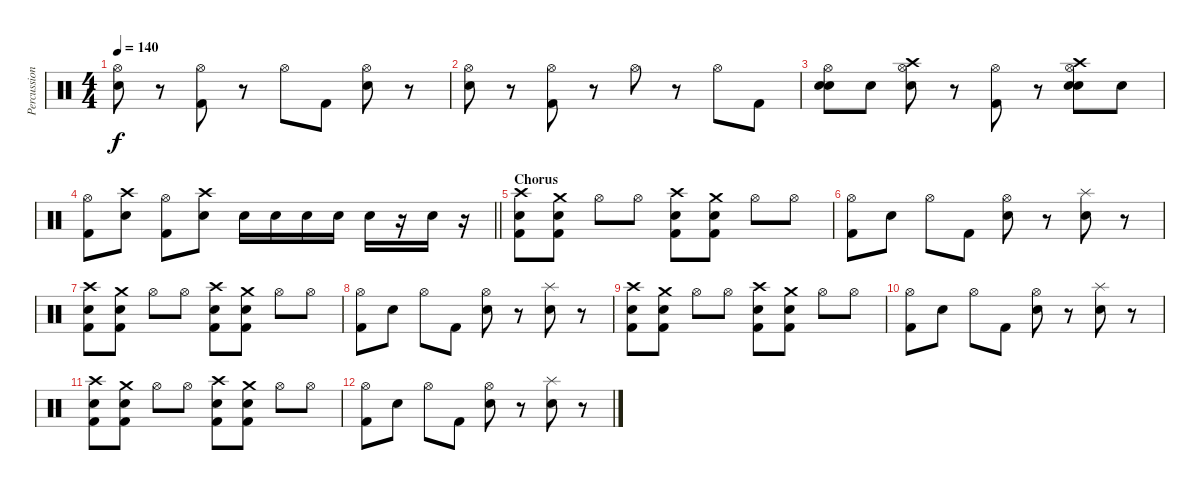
\track ("Percussion" "Percussion") {instrument percussion}
\staff {score}
\articulation defaults
\ts (4 4)
\tempo 140
\clef neutral
\ks c
("Hi-Hat (open)" "Snare (hit) 2").8{dy f} r.8 ("Hi-Hat (open)" "Kick (hit) 2").8 r.8 "Hi-Hat (open)".8 "Kick (hit) 2".8 ("Hi-Hat (open)" "Snare (hit) 2").8 r.8 |
("Hi-Hat (open)" "Snare (hit) 2").8 r.8 ("Hi-Hat (open)" "Kick (hit) 2").8 r.8 "Hi-Hat (open)".8 r.8 "Hi-Hat (open)".8 "Kick (hit) 2".8 |
("Hi-Hat (open)" "Snare (hit) 2" "Snare (hit) 2").8 "Snare (hit) 2".8 ("Crash high (hit)" "Hi-Hat (open)" "Snare (hit) 2").8 r.8 ("Hi-Hat (open)" "Kick (hit) 2").8 r.8 ("Crash high (hit)" "Hi-Hat (open)" "Snare (hit) 2" "Snare (hit) 2").8 "Snare (hit) 2".8 |
\barLineRight lightlight
("Hi-Hat (open)" "Kick (hit) 2").8 ("Crash high (hit)" "Snare (hit) 2").8 ("Hi-Hat (open)" "Kick (hit) 2").8 ("Crash high (hit)" "Snare (hit) 2").8 "Snare (hit) 2".16 "Snare (hit) 2".16 "Snare (hit) 2".16 "Snare (hit) 2".16 "Snare (hit) 2".16 r.16 "Snare (hit) 2".16 r.16 |
\section ("" "Chorus")
("Crash high (hit)" "Snare (hit) 2" "Kick (hit) 2").8 ("Crash medium (hit)" "Snare (hit) 2" "Kick (hit) 2").8 "Hi-Hat (open)".8 "Hi-Hat (open)".8 ("Crash high (hit)" "Snare (hit) 2" "Kick (hit) 2").8 ("Crash medium (hit)" "Snare (hit) 2" "Kick (hit) 2").8 "Hi-Hat (open)".8 "Hi-Hat (open)".8 |
("Hi-Hat (open)" "Kick (hit) 2").8 "Snare (hit) 2".8 "Hi-Hat (open)".8 "Kick (hit) 2".8 ("Hi-Hat (open)" "Snare (hit) 2").8 r.8 ("Splash (hit)" "Snare (hit) 2").8 r.8 |
("Crash high (hit)" "Snare (hit) 2" "Kick (hit) 2").8 ("Crash medium (hit)" "Snare (hit) 2" "Kick (hit) 2").8 "Hi-Hat (open)".8 "Hi-Hat (open)".8 ("Crash high (hit)" "Snare (hit) 2" "Kick (hit) 2").8 ("Crash medium (hit)" "Snare (hit) 2" "Kick (hit) 2").8 "Hi-Hat (open)".8 "Hi-Hat (open)".8 |
("Hi-Hat (open)" "Kick (hit) 2").8 "Snare (hit) 2".8 "Hi-Hat (open)".8 "Kick (hit) 2".8 ("Hi-Hat (open)" "Snare (hit) 2").8 r.8 ("Splash (hit)" "Snare (hit) 2").8 r.8 |
("Crash high (hit)" "Snare (hit) 2" "Kick (hit) 2").8 ("Crash medium (hit)" "Snare (hit) 2" "Kick (hit) 2").8 "Hi-Hat (open)".8 "Hi-Hat (open)".8 ("Crash high (hit)" "Snare (hit) 2" "Kick (hit) 2").8 ("Crash medium (hit)" "Snare (hit) 2" "Kick (hit) 2").8 "Hi-Hat (open)".8 "Hi-Hat (open)".8 |
("Hi-Hat (open)" "Kick (hit) 2").8 "Snare (hit) 2".8 "Hi-Hat (open)".8 "Kick (hit) 2".8 ("Hi-Hat (open)" "Snare (hit) 2").8 r.8 ("Splash (hit)" "Snare (hit) 2").8 r.8 |
("Crash high (hit)" "Snare (hit) 2" "Kick (hit) 2").8 ("Crash medium (hit)" "Snare (hit) 2" "Kick (hit) 2").8 "Hi-Hat (open)".8 "Hi-Hat (open)".8 ("Crash high (hit)" "Snare (hit) 2" "Kick (hit) 2").8 ("Crash medium (hit)" "Snare (hit) 2" "Kick (hit) 2").8 "Hi-Hat (open)".8 "Hi-Hat (open)".8 |
("Hi-Hat (open)" "Kick (hit) 2").8 "Snare (hit) 2".8 "Hi-Hat (open)".8 "Kick (hit) 2".8 ("Hi-Hat (open)" "Snare (hit) 2").8 r.8 ("Splash (hit)" "Snare (hit) 2").8 r.8
